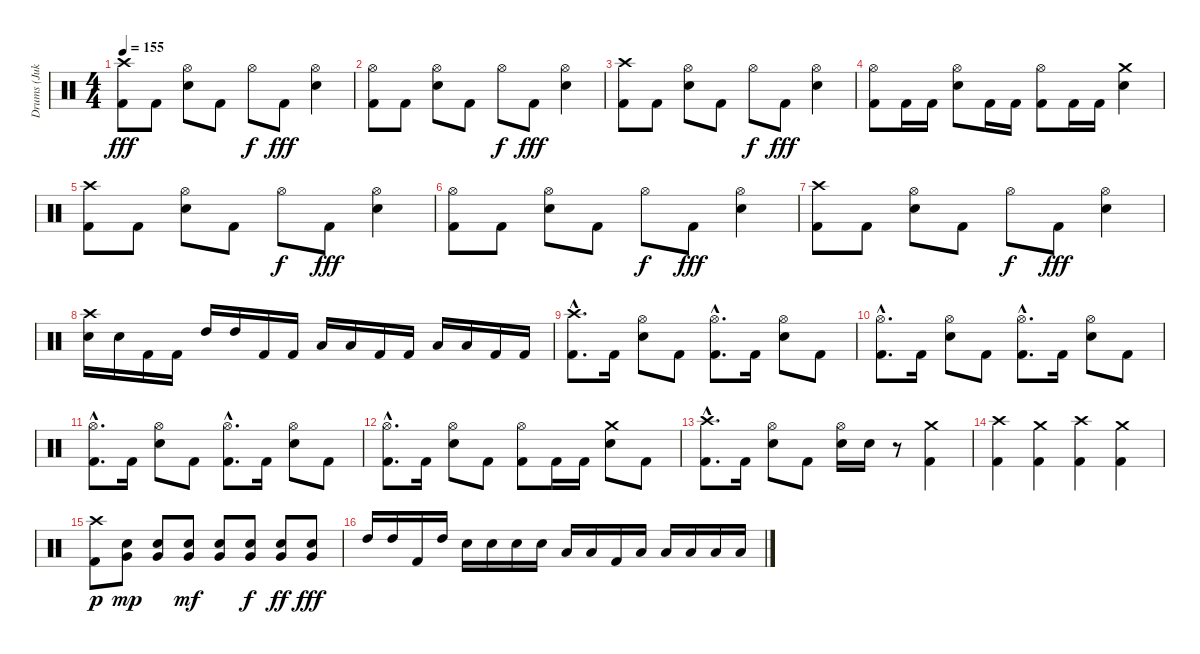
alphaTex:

\track ("Drums (Jukka)" "Drums (Juk") {instrument percussion}
\staff {score}
\articulation defaults
\ts (4 4)
\tempo 155
\clef neutral
\ks c
("Kick (hit) 2" "Crash high (hit)").8{dy fff} "Kick (hit) 2".8 ("Snare (hit) 2" "Hi-Hat (open)").8 "Kick (hit) 2".8 "Hi-Hat (open)".8{dy f} "Kick (hit) 2".8{dy fff} ("Snare (hit) 2" "Hi-Hat (open)").4 |
("Kick (hit) 2" "Hi-Hat (open)").8 "Kick (hit) 2".8 ("Snare (hit) 2" "Hi-Hat (open)").8 "Kick (hit) 2".8 "Hi-Hat (open)".8{dy f} "Kick (hit) 2".8{dy fff} ("Snare (hit) 2" "Hi-Hat (open)").4 |
("Kick (hit) 2" "Crash high (hit)").8 "Kick (hit) 2".8 ("Snare (hit) 2" "Hi-Hat (open)").8 "Kick (hit) 2".8 "Hi-Hat (open)".8{dy f} "Kick (hit) 2".8{dy fff} ("Snare (hit) 2" "Hi-Hat (open)").4 |
("Kick (hit) 2" "Hi-Hat (open)").8 "Kick (hit) 2".16 "Kick (hit) 2".16 ("Snare (hit) 2" "Hi-Hat (open)").8 "Kick (hit) 2".16 "Kick (hit) 2".16 ("Kick (hit) 2" "Hi-Hat (open)").8 "Kick (hit) 2".16 "Kick (hit) 2".16 ("Snare (hit) 2" "Crash medium (hit)").4 |
("Kick (hit) 2" "Crash high (hit)").8 "Kick (hit) 2".8 ("Snare (hit) 2" "Hi-Hat (open)").8 "Kick (hit) 2".8 "Hi-Hat (open)".8{dy f} "Kick (hit) 2".8{dy fff} ("Snare (hit) 2" "Hi-Hat (open)").4 |
("Kick (hit) 2" "Hi-Hat (open)").8 "Kick (hit) 2".8 ("Snare (hit) 2" "Hi-Hat (open)").8 "Kick (hit) 2".8 "Hi-Hat (open)".8{dy f} "Kick (hit) 2".8{dy fff} ("Snare (hit) 2" "Hi-Hat (open)").4 |
("Kick (hit) 2" "Crash high (hit)").8 "Kick (hit) 2".8 ("Snare (hit) 2" "Hi-Hat (open)").8 "Kick (hit) 2".8 "Hi-Hat (open)".8{dy f} "Kick (hit) 2".8{dy fff} ("Snare (hit) 2" "Hi-Hat (open)").4 |
("Snare (hit) 2" "Crash high (hit)").16 "Snare (hit) 2".16 "Kick (hit) 2".16 "Kick (hit) 2".16 "High Tom (hit)".16 "High Tom (hit)".16 "Kick (hit) 2".16 "Kick (hit) 2".16 "Low Tom (hit)".16 "Low Tom (hit)".16 "Kick (hit) 2".16 "Kick (hit) 2".16 "Low Floor Tom (hit)".16 "Low Floor Tom (hit)".16 "Kick (hit) 2".16 "Kick (hit) 2".16 |
("Kick (hit) 2"{hac} "Crash high (hit)"{hac}).8{d} "Kick (hit) 2".16 ("Snare (hit) 2" "Hi-Hat (open)").8 "Kick (hit) 2".8 ("Kick (hit) 2"{hac} "Hi-Hat (open)"{hac}).8{d} "Kick (hit) 2".16 ("Snare (hit) 2" "Hi-Hat (open)").8 "Kick (hit) 2".8 |
("Kick (hit) 2"{hac} "Hi-Hat (open)"{hac}).8{d} "Kick (hit) 2".16 ("Snare (hit) 2" "Hi-Hat (open)").8 "Kick (hit) 2".8 ("Kick (hit) 2"{hac} "Hi-Hat (open)"{hac}).8{d} "Kick (hit) 2".16 ("Snare (hit) 2" "Hi-Hat (open)").8 "Kick (hit) 2".8 |
("Kick (hit) 2"{hac} "Hi-Hat (open)"{hac}).8{d} "Kick (hit) 2".16 ("Snare (hit) 2" "Hi-Hat (open)").8 "Kick (hit) 2".8 ("Kick (hit) 2"{hac} "Hi-Hat (open)"{hac}).8{d} "Kick (hit) 2".16 ("Snare (hit) 2" "Hi-Hat (open)").8 "Kick (hit) 2".8 |
("Kick (hit) 2"{hac} "Hi-Hat (open)"{hac}).8{d} "Kick (hit) 2".16 ("Snare (hit) 2" "Hi-Hat (open)").8 "Kick (hit) 2".8 ("Kick (hit) 2" "Hi-Hat (open)").8 "Kick (hit) 2".16 "Kick (hit) 2".16 ("Snare (hit) 2" "Crash medium (hit)").8 "Kick (hit) 2".8 |
("Kick (hit) 2"{hac} "Crash high (hit)"{hac}).8{d} "Kick (hit) 2".16 ("Snare (hit) 2" "Hi-Hat (open)").8 "Kick (hit) 2".8 ("Snare (hit) 2" "Hi-Hat (open)").16 "Snare (hit) 2".16 r.8 ("Kick (hit) 2" "Crash medium (hit)").4 |
("Kick (hit) 2" "Crash high (hit)").4 ("Kick (hit) 2" "Crash medium (hit)").4 ("Kick (hit) 2" "Crash high (hit)").4 ("Kick (hit) 2" "Crash medium (hit)").4 |
("Kick (hit) 2" "Crash high (hit)").8{dy p} ("Snare (hit) 2" "Very Low Tom (hit)").8{dy mp} ("Snare (hit) 2" "Very Low Tom (hit)").8 ("Snare (hit) 2" "Very Low Tom (hit)").8{dy mf} ("Snare (hit) 2" "Very Low Tom (hit)").8 ("Snare (hit) 2" "Very Low Tom (hit)").8{dy f} ("Snare (hit) 2" "Very Low Tom (hit)").8{dy ff} ("Snare (hit) 2" "Very Low Tom (hit)").8{dy fff} |
"High Tom (hit)".16 "High Tom (hit)".16 "Kick (hit) 2".16 "High Tom (hit)".16 "Snare (hit) 2".16 "Snare (hit) 2".16 "Snare (hit) 2".16 "Snare (hit) 2".16 "Low Tom (hit)".16 "Low Tom (hit)".16 "Kick (hit) 2".16 "Low Tom (hit)".16 "Low Floor Tom (hit)".16 "Low Floor Tom (hit)".16 "Low Tom (hit)".16 "Low Floor Tom (hit)".16
